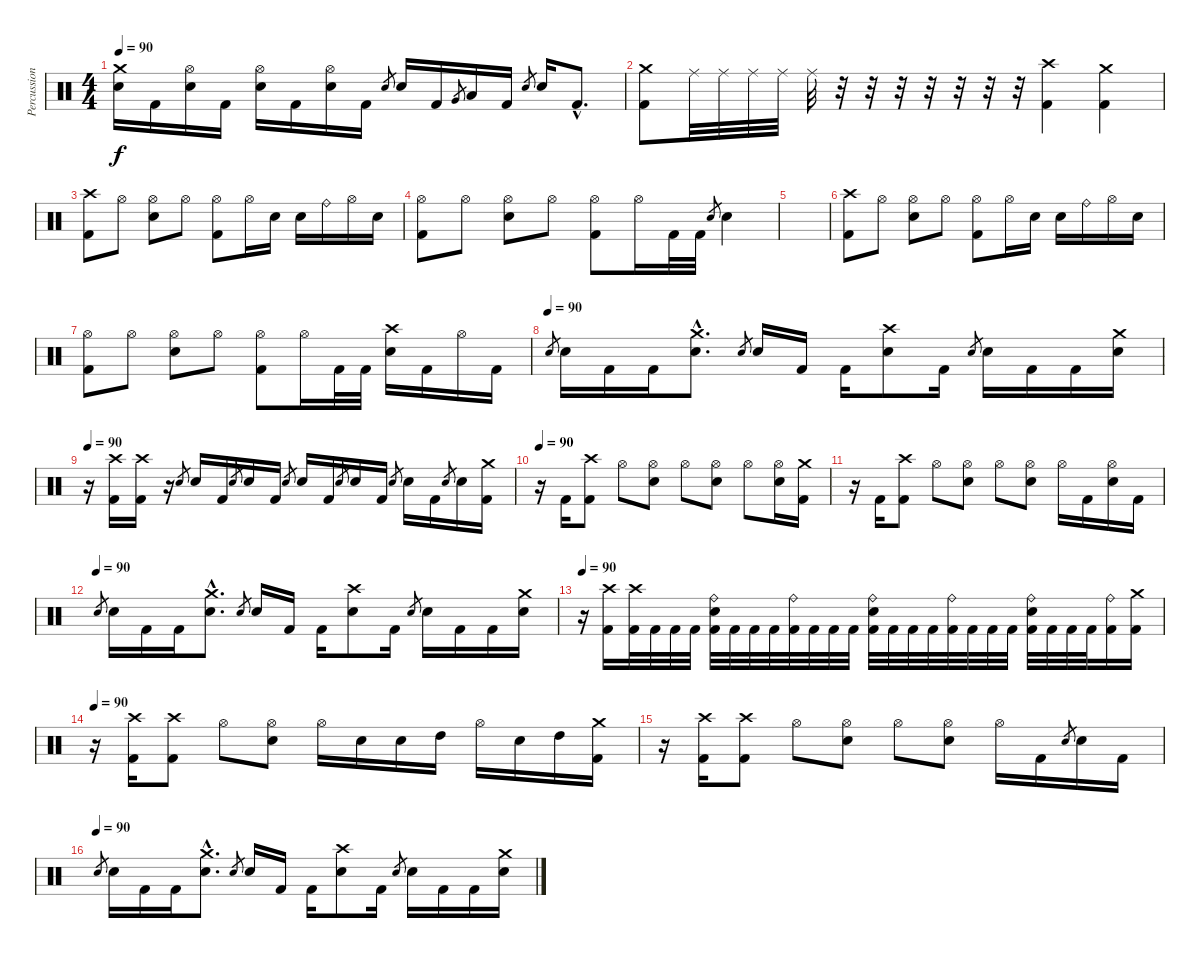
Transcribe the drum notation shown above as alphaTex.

\track ("Percussion" "Percussion") {instrument percussion}
\staff {score}
\articulation defaults
\ts (4 4)
\tempo 90
\clef neutral
\ks c
("Crash medium (hit)" "Electric Snare (hit)").16{dy f} "Kick (hit) 2".16 ("Hi-Hat (open)" "Electric Snare (hit)").16 "Kick (hit) 2".16 ("Hi-Hat (open)" "Electric Snare (hit)").16 "Kick (hit) 2".16 ("Hi-Hat (open)" "Electric Snare (hit)").16 "Kick (hit) 2".16 "Electric Snare (hit)".8{gr} "Electric Snare (hit)".16 "Kick (hit) 2".16 "Very Low Tom (hit)".8{gr} "Low Floor Tom (hit)".16 "Kick (hit) 2".16 "Electric Snare (hit)".8{gr} "Electric Snare (hit)".16 "Kick (hit) 2"{hac}.8{d} |
("Crash medium (hit)" "Kick (hit) 2").8 "Ride (middle)".32 "Ride (middle)".32 "Ride (middle)".32 "Ride (middle)".32 "Ride (middle)".32 r.32 r.32 r.32 r.32 r.32 r.32 r.32 ("Crash high (hit)" "Kick (hit) 2").4 ("Crash medium (hit)" "Kick (hit) 2").4 |
("Crash high (hit)" "Kick (hit) 2").8 "Hi-Hat (open)".8 ("Hi-Hat (open)" "Electric Snare (hit)").8 "Hi-Hat (open)".8 ("Hi-Hat (open)" "Kick (hit) 2").8 "Hi-Hat (open)".16 "Electric Snare (hit)".16 "Electric Snare (hit)".16 "Ride (bell)".16 "Hi-Hat (open)".16 "Electric Snare (hit)".16 |
("Hi-Hat (open)" "Kick (hit) 2").8 "Hi-Hat (open)".8 ("Hi-Hat (open)" "Electric Snare (hit)").8 "Hi-Hat (open)".8 ("Hi-Hat (open)" "Kick (hit) 2").8 "Hi-Hat (open)".16 "Kick (hit) 2".32 "Kick (hit) 2".32 "Electric Snare (hit)".8{gr} "Electric Snare (hit)".4 |
|
("Crash high (hit)" "Kick (hit) 2").8 "Hi-Hat (open)".8 ("Hi-Hat (open)" "Electric Snare (hit)").8 "Hi-Hat (open)".8 ("Hi-Hat (open)" "Kick (hit) 2").8 "Hi-Hat (open)".16 "Electric Snare (hit)".16 "Electric Snare (hit)".16 "Ride (bell)".16 "Hi-Hat (open)".16 "Electric Snare (hit)".16 |
("Hi-Hat (open)" "Kick (hit) 2").8 "Hi-Hat (open)".8 ("Hi-Hat (open)" "Electric Snare (hit)").8 "Hi-Hat (open)".8 ("Hi-Hat (open)" "Kick (hit) 2").8 "Hi-Hat (open)".16 "Kick (hit) 2".32 "Kick (hit) 2".32 ("Crash high (hit)" "Electric Snare (hit)").16 "Kick (hit) 2".16 "Hi-Hat (open)".16 "Kick (hit) 2".16 |
\tempo (90)
"Electric Snare (hit)".8{gr} "Electric Snare (hit)".16 "Kick (hit) 2".16 "Kick (hit) 2".16 ("Crash medium (hit)"{hac} "Electric Snare (hit)"{hac}).8{d} "Electric Snare (hit)".8{gr} "Electric Snare (hit)".16 "Kick (hit) 2".16 "Kick (hit) 2".16 ("Crash high (hit)" "Electric Snare (hit)").8 "Kick (hit) 2".16 "Electric Snare (hit)".8{gr} "Electric Snare (hit)".16 "Kick (hit) 2".16 "Kick (hit) 2".16 ("Crash medium (hit)" "Electric Snare (hit)").16 |
\tempo 90
r.16 ("Crash high (hit)" "Kick (hit) 2").16 ("Crash high (hit)" "Kick (hit) 2").16 r.16 "Electric Snare (hit)".8{gr} "Electric Snare (hit)".16 "Kick (hit) 2".16 "Electric Snare (hit)".8{gr} "Electric Snare (hit)".16 "Kick (hit) 2".16 "Electric Snare (hit)".8{gr} "Electric Snare (hit)".16 "Kick (hit) 2".16 "Electric Snare (hit)".8{gr} "Electric Snare (hit)".16 "Kick (hit) 2".16 "Electric Snare (hit)".8{gr} "Electric Snare (hit)".16 "Kick (hit) 2".16 "Electric Snare (hit)".8{gr} "Electric Snare (hit)".16 ("Crash medium (hit)" "Kick (hit) 2").16 |
\tempo 90
r.16 "Kick (hit) 2".16 ("Crash high (hit)" "Kick (hit) 2").8 "Hi-Hat (open)".8 ("Hi-Hat (open)" "Electric Snare (hit)").8 "Hi-Hat (open)".8 ("Hi-Hat (open)" "Electric Snare (hit)").8 "Hi-Hat (open)".8 ("Hi-Hat (open)" "Electric Snare (hit)").16 ("Crash medium (hit)" "Kick (hit) 2").16 |
r.16 "Kick (hit) 2".16 ("Crash high (hit)" "Kick (hit) 2").8 "Hi-Hat (open)".8 ("Hi-Hat (open)" "Electric Snare (hit)").8 "Hi-Hat (open)".8 ("Hi-Hat (open)" "Electric Snare (hit)").8 "Hi-Hat (open)".16 "Kick (hit) 2".16 ("Hi-Hat (open)" "Electric Snare (hit)").16 "Kick (hit) 2".16 |
\tempo (90)
"Electric Snare (hit)".8{gr} "Electric Snare (hit)".16 "Kick (hit) 2".16 "Kick (hit) 2".16 ("Crash medium (hit)"{hac} "Electric Snare (hit)"{hac}).8{d} "Electric Snare (hit)".8{gr} "Electric Snare (hit)".16 "Kick (hit) 2".16 "Kick (hit) 2".16 ("Crash high (hit)" "Electric Snare (hit)").8 "Kick (hit) 2".16 "Electric Snare (hit)".8{gr} "Electric Snare (hit)".16 "Kick (hit) 2".16 "Kick (hit) 2".16 ("Crash medium (hit)" "Electric Snare (hit)").16 |
\tempo 90
r.16 ("Crash high (hit)" "Kick (hit) 2").16 ("Crash high (hit)" "Kick (hit) 2").32 "Kick (hit) 2".32 "Kick (hit) 2".32 "Kick (hit) 2".32 ("Ride (bell)" "Electric Snare (hit)" "Kick (hit) 2").32 "Kick (hit) 2".32 "Kick (hit) 2".32 "Kick (hit) 2".32 ("Ride (bell)" "Kick (hit) 2").32 "Kick (hit) 2".32 "Kick (hit) 2".32 "Kick (hit) 2".32 ("Ride (bell)" "Electric Snare (hit)" "Kick (hit) 2").32 "Kick (hit) 2".32 "Kick (hit) 2".32 "Kick (hit) 2".32 ("Ride (bell)" "Kick (hit) 2").32 "Kick (hit) 2".32 "Kick (hit) 2".32 "Kick (hit) 2".32 ("Ride (bell)" "Electric Snare (hit)" "Kick (hit) 2").32 "Kick (hit) 2".32 "Kick (hit) 2".32 "Kick (hit) 2".32 ("Ride (bell)" "Kick (hit) 2").16 ("Crash medium (hit)" "Kick (hit) 2").16 |
\tempo 90
r.16 ("Crash high (hit)" "Kick (hit) 2").16 ("Crash high (hit)" "Kick (hit) 2").8 "Hi-Hat (open)".8 ("Hi-Hat (open)" "Electric Snare (hit)").8 "Hi-Hat (open)".16 "Electric Snare (hit)".16 "Electric Snare (hit)".16 "High Tom (hit)".16 "Hi-Hat (open)".16 "Electric Snare (hit)".16 "High Tom (hit)".16 ("Crash medium (hit)" "Kick (hit) 2").16 |
r.16 ("Crash high (hit)" "Kick (hit) 2").16 ("Crash high (hit)" "Kick (hit) 2").8 "Hi-Hat (open)".8 ("Hi-Hat (open)" "Electric Snare (hit)").8 "Hi-Hat (open)".8 ("Hi-Hat (open)" "Electric Snare (hit)").8 "Hi-Hat (open)".16 "Kick (hit) 2".16 "Electric Snare (hit)".8{gr} "Electric Snare (hit)".16 "Kick (hit) 2".16 |
\tempo (90)
"Electric Snare (hit)".8{gr} "Electric Snare (hit)".16 "Kick (hit) 2".16 "Kick (hit) 2".16 ("Crash medium (hit)"{hac} "Electric Snare (hit)"{hac}).8{d} "Electric Snare (hit)".8{gr} "Electric Snare (hit)".16 "Kick (hit) 2".16 "Kick (hit) 2".16 ("Crash high (hit)" "Electric Snare (hit)").8 "Kick (hit) 2".16 "Electric Snare (hit)".8{gr} "Electric Snare (hit)".16 "Kick (hit) 2".16 "Kick (hit) 2".16 ("Crash medium (hit)" "Electric Snare (hit)").16
